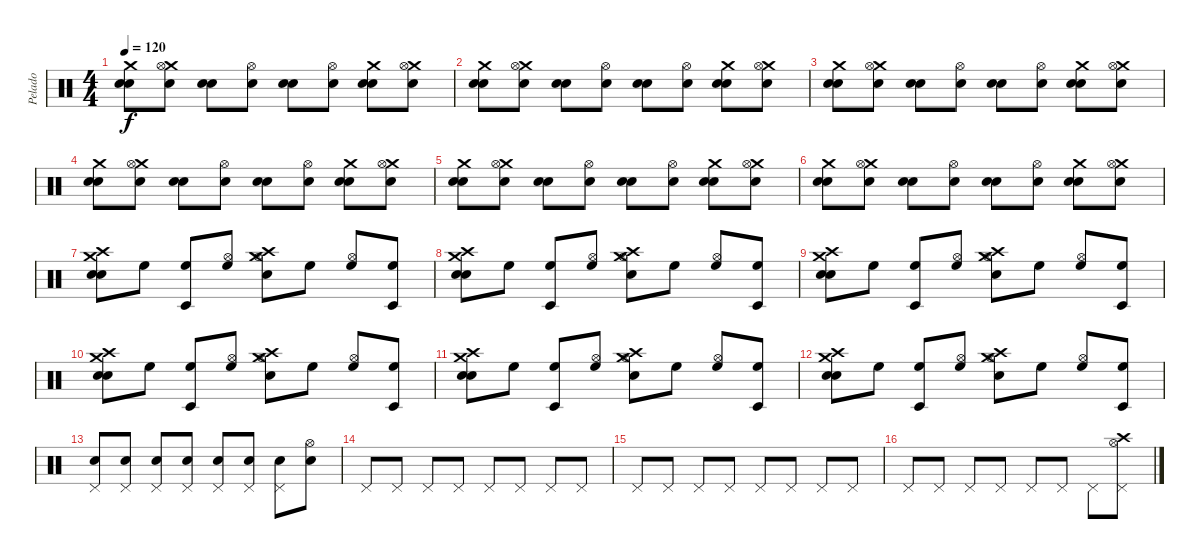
\track ("Pelado" "Pelado") {instrument percussion}
\staff {score}
\articulation defaults
\ts (4 4)
\tempo 120
\clef neutral
\ks c
("Crash medium (hit)" "Electric Snare (hit)" "Electric Snare (hit)").8{dy f} ("Crash medium (hit)" "Hi-Hat (open)" "Electric Snare (hit)").8 ("Electric Snare (hit)" "Electric Snare (hit)").8 ("Electric Snare (hit)" "Hi-Hat (open)").8 ("Electric Snare (hit)" "Electric Snare (hit)").8 ("Electric Snare (hit)" "Hi-Hat (open)").8 ("Crash medium (hit)" "Electric Snare (hit)" "Electric Snare (hit)").8 ("Crash medium (hit)" "Electric Snare (hit)" "Hi-Hat (open)").8 |
("Crash medium (hit)" "Electric Snare (hit)" "Electric Snare (hit)").8 ("Crash medium (hit)" "Hi-Hat (open)" "Electric Snare (hit)").8 ("Electric Snare (hit)" "Electric Snare (hit)").8 ("Electric Snare (hit)" "Hi-Hat (open)").8 ("Electric Snare (hit)" "Electric Snare (hit)").8 ("Electric Snare (hit)" "Hi-Hat (open)").8 ("Crash medium (hit)" "Electric Snare (hit)" "Electric Snare (hit)").8 ("Crash medium (hit)" "Electric Snare (hit)" "Hi-Hat (open)").8 |
("Crash medium (hit)" "Electric Snare (hit)" "Electric Snare (hit)").8 ("Crash medium (hit)" "Hi-Hat (open)" "Electric Snare (hit)").8 ("Electric Snare (hit)" "Electric Snare (hit)").8 ("Electric Snare (hit)" "Hi-Hat (open)").8 ("Electric Snare (hit)" "Electric Snare (hit)").8 ("Electric Snare (hit)" "Hi-Hat (open)").8 ("Crash medium (hit)" "Electric Snare (hit)" "Electric Snare (hit)").8 ("Crash medium (hit)" "Electric Snare (hit)" "Hi-Hat (open)").8 |
("Crash medium (hit)" "Electric Snare (hit)" "Electric Snare (hit)").8 ("Crash medium (hit)" "Hi-Hat (open)" "Electric Snare (hit)").8 ("Electric Snare (hit)" "Electric Snare (hit)").8 ("Electric Snare (hit)" "Hi-Hat (open)").8 ("Electric Snare (hit)" "Electric Snare (hit)").8 ("Electric Snare (hit)" "Hi-Hat (open)").8 ("Crash medium (hit)" "Electric Snare (hit)" "Electric Snare (hit)").8 ("Crash medium (hit)" "Electric Snare (hit)" "Hi-Hat (open)").8 |
("Crash medium (hit)" "Electric Snare (hit)" "Electric Snare (hit)").8 ("Crash medium (hit)" "Hi-Hat (open)" "Electric Snare (hit)").8 ("Electric Snare (hit)" "Electric Snare (hit)").8 ("Electric Snare (hit)" "Hi-Hat (open)").8 ("Electric Snare (hit)" "Electric Snare (hit)").8 ("Electric Snare (hit)" "Hi-Hat (open)").8 ("Crash medium (hit)" "Electric Snare (hit)" "Electric Snare (hit)").8 ("Crash medium (hit)" "Electric Snare (hit)" "Hi-Hat (open)").8 |
("Crash medium (hit)" "Electric Snare (hit)" "Electric Snare (hit)").8 ("Crash medium (hit)" "Hi-Hat (open)" "Electric Snare (hit)").8 ("Electric Snare (hit)" "Electric Snare (hit)").8 ("Electric Snare (hit)" "Hi-Hat (open)").8 ("Electric Snare (hit)" "Electric Snare (hit)").8 ("Electric Snare (hit)" "Hi-Hat (open)").8 ("Crash medium (hit)" "Electric Snare (hit)" "Electric Snare (hit)").8 ("Crash medium (hit)" "Electric Snare (hit)" "Hi-Hat (open)").8 |
("Crash high (hit)" "Crash medium (hit)" "Electric Snare (hit)" "Electric Snare (hit)").8 "High Floor Tom (hit)".8 ("High Floor Tom (hit)" "Timbale low (hit)").8 ("High Floor Tom (hit)" "Hi-Hat (open)").8 ("Crash high (hit)" "Crash medium (hit)" "Electric Snare (hit)" "Hi-Hat (open)").8 "High Floor Tom (hit)".8 ("High Floor Tom (hit)" "Hi-Hat (open)").8 ("High Floor Tom (hit)" "Timbale low (hit)").8 |
("Crash high (hit)" "Crash medium (hit)" "Electric Snare (hit)" "Electric Snare (hit)").8 "High Floor Tom (hit)".8 ("High Floor Tom (hit)" "Timbale low (hit)").8 ("High Floor Tom (hit)" "Hi-Hat (open)").8 ("Crash high (hit)" "Crash medium (hit)" "Electric Snare (hit)" "Hi-Hat (open)").8 "High Floor Tom (hit)".8 ("High Floor Tom (hit)" "Hi-Hat (open)").8 ("High Floor Tom (hit)" "Timbale low (hit)").8 |
("Crash high (hit)" "Crash medium (hit)" "Electric Snare (hit)" "Electric Snare (hit)").8 "High Floor Tom (hit)".8 ("High Floor Tom (hit)" "Timbale low (hit)").8 ("High Floor Tom (hit)" "Hi-Hat (open)").8 ("Crash high (hit)" "Crash medium (hit)" "Electric Snare (hit)" "Hi-Hat (open)").8 "High Floor Tom (hit)".8 ("High Floor Tom (hit)" "Hi-Hat (open)").8 ("High Floor Tom (hit)" "Timbale low (hit)").8 |
("Crash high (hit)" "Crash medium (hit)" "Electric Snare (hit)" "Electric Snare (hit)").8 "High Floor Tom (hit)".8 ("High Floor Tom (hit)" "Timbale low (hit)").8 ("High Floor Tom (hit)" "Hi-Hat (open)").8 ("Crash high (hit)" "Crash medium (hit)" "Electric Snare (hit)" "Hi-Hat (open)").8 "High Floor Tom (hit)".8 ("High Floor Tom (hit)" "Hi-Hat (open)").8 ("High Floor Tom (hit)" "Timbale low (hit)").8 |
("Crash high (hit)" "Crash medium (hit)" "Electric Snare (hit)" "Electric Snare (hit)").8 "High Floor Tom (hit)".8 ("High Floor Tom (hit)" "Timbale low (hit)").8 ("High Floor Tom (hit)" "Hi-Hat (open)").8 ("Crash high (hit)" "Crash medium (hit)" "Electric Snare (hit)" "Hi-Hat (open)").8 "High Floor Tom (hit)".8 ("High Floor Tom (hit)" "Hi-Hat (open)").8 ("High Floor Tom (hit)" "Timbale low (hit)").8 |
("Crash high (hit)" "Crash medium (hit)" "Electric Snare (hit)" "Electric Snare (hit)").8 "High Floor Tom (hit)".8 ("High Floor Tom (hit)" "Timbale low (hit)").8 ("High Floor Tom (hit)" "Hi-Hat (open)").8 ("Crash high (hit)" "Crash medium (hit)" "Electric Snare (hit)" "Hi-Hat (open)").8 "High Floor Tom (hit)".8 ("High Floor Tom (hit)" "Hi-Hat (open)").8 ("High Floor Tom (hit)" "Timbale low (hit)").8 |
("Pedal Hi-Hat (hit)" "Electric Snare (hit)").8 ("Pedal Hi-Hat (hit)" "Electric Snare (hit)").8 ("Pedal Hi-Hat (hit)" "Electric Snare (hit)").8 ("Pedal Hi-Hat (hit)" "Electric Snare (hit)").8 ("Pedal Hi-Hat (hit)" "Electric Snare (hit)").8 ("Pedal Hi-Hat (hit)" "Electric Snare (hit)").8 ("Pedal Hi-Hat (hit)" "Electric Snare (hit)").8 ("Hi-Hat (open)" "Electric Snare (hit)").8 |
"Pedal Hi-Hat (hit)".8 "Pedal Hi-Hat (hit)".8 "Pedal Hi-Hat (hit)".8 "Pedal Hi-Hat (hit)".8 "Pedal Hi-Hat (hit)".8 "Pedal Hi-Hat (hit)".8 "Pedal Hi-Hat (hit)".8 "Pedal Hi-Hat (hit)".8 |
"Pedal Hi-Hat (hit)".8 "Pedal Hi-Hat (hit)".8 "Pedal Hi-Hat (hit)".8 "Pedal Hi-Hat (hit)".8 "Pedal Hi-Hat (hit)".8 "Pedal Hi-Hat (hit)".8 "Pedal Hi-Hat (hit)".8 "Pedal Hi-Hat (hit)".8 |
"Pedal Hi-Hat (hit)".8 "Pedal Hi-Hat (hit)".8 "Pedal Hi-Hat (hit)".8 "Pedal Hi-Hat (hit)".8 "Pedal Hi-Hat (hit)".8 "Pedal Hi-Hat (hit)".8 "Pedal Hi-Hat (hit)".8 ("Crash high (hit)" "Hi-Hat (open)" "Pedal Hi-Hat (hit)").8
